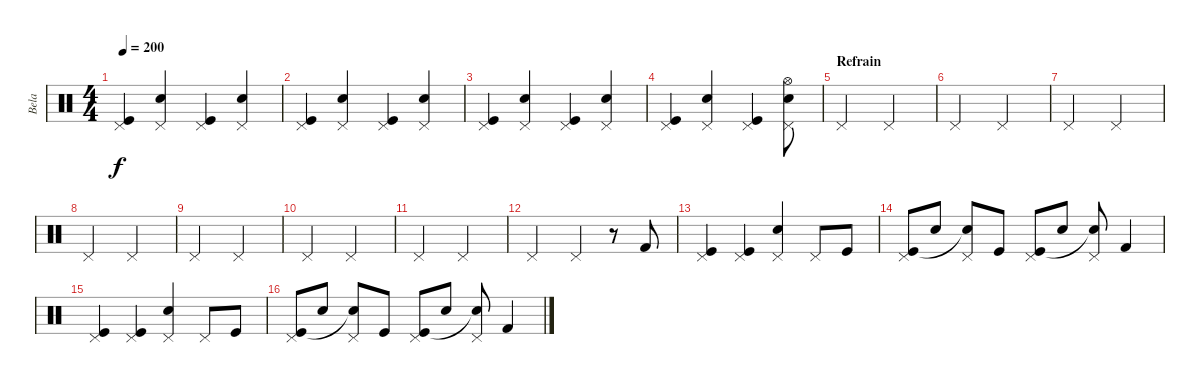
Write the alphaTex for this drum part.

\track ("Bela" "Bela") {instrument percussion}
\staff {score}
\articulation defaults
\ts (4 4)
\tempo 200
\clef neutral
\ks c
("Pedal Hi-Hat (hit)" "Kick (hit)").4{dy f} ("Pedal Hi-Hat (hit)" "Electric Snare (hit)").4 ("Pedal Hi-Hat (hit)" "Kick (hit)").4 ("Pedal Hi-Hat (hit)" "Electric Snare (hit)").4 |
("Pedal Hi-Hat (hit)" "Kick (hit)").4 ("Pedal Hi-Hat (hit)" "Electric Snare (hit)").4 ("Pedal Hi-Hat (hit)" "Kick (hit)").4 ("Pedal Hi-Hat (hit)" "Electric Snare (hit)").4 |
("Pedal Hi-Hat (hit)" "Kick (hit)").4 ("Pedal Hi-Hat (hit)" "Electric Snare (hit)").4 ("Pedal Hi-Hat (hit)" "Kick (hit)").4 ("Pedal Hi-Hat (hit)" "Electric Snare (hit)").4 |
("Pedal Hi-Hat (hit)" "Kick (hit)").4 ("Pedal Hi-Hat (hit)" "Electric Snare (hit)").4 ("Pedal Hi-Hat (hit)" "Kick (hit)").4 ("Pedal Hi-Hat (hit)" "Hi-Hat (open)" "Electric Snare (hit)").8 |
\section ("" "Refrain")
"Pedal Hi-Hat (hit)".2 "Pedal Hi-Hat (hit)".2 |
"Pedal Hi-Hat (hit)".2 "Pedal Hi-Hat (hit)".2 |
"Pedal Hi-Hat (hit)".2 "Pedal Hi-Hat (hit)".2 |
"Pedal Hi-Hat (hit)".2 "Pedal Hi-Hat (hit)".2 |
"Pedal Hi-Hat (hit)".2 "Pedal Hi-Hat (hit)".2 |
"Pedal Hi-Hat (hit)".2 "Pedal Hi-Hat (hit)".2 |
"Pedal Hi-Hat (hit)".2 "Pedal Hi-Hat (hit)".2 |
"Pedal Hi-Hat (hit)".2 "Pedal Hi-Hat (hit)".4 r.8 "Kick (hit) 2".8 |
("Pedal Hi-Hat (hit)" "Kick (hit)").4 ("Pedal Hi-Hat (hit)" "Kick (hit)").4 ("Pedal Hi-Hat (hit)" "Electric Snare (hit)").4 "Pedal Hi-Hat (hit)".8 "Kick (hit)".8 |
("Pedal Hi-Hat (hit)" "Kick (hit)").8 "Electric Snare (hit)".8 ("Pedal Hi-Hat (hit)" "Electric Snare (hit)"{t}).8 "Kick (hit)".8 ("Pedal Hi-Hat (hit)" "Kick (hit)").8 "Electric Snare (hit)".8 ("Pedal Hi-Hat (hit)" "Electric Snare (hit)"{t}).8 "Kick (hit) 2".4 |
("Pedal Hi-Hat (hit)" "Kick (hit)").4 ("Pedal Hi-Hat (hit)" "Kick (hit)").4 ("Pedal Hi-Hat (hit)" "Electric Snare (hit)").4 "Pedal Hi-Hat (hit)".8 "Kick (hit)".8 |
("Pedal Hi-Hat (hit)" "Kick (hit)").8 "Electric Snare (hit)".8 ("Pedal Hi-Hat (hit)" "Electric Snare (hit)"{t}).8 "Kick (hit)".8 ("Pedal Hi-Hat (hit)" "Kick (hit)").8 "Electric Snare (hit)".8 ("Pedal Hi-Hat (hit)" "Electric Snare (hit)"{t}).8 "Kick (hit) 2".4
